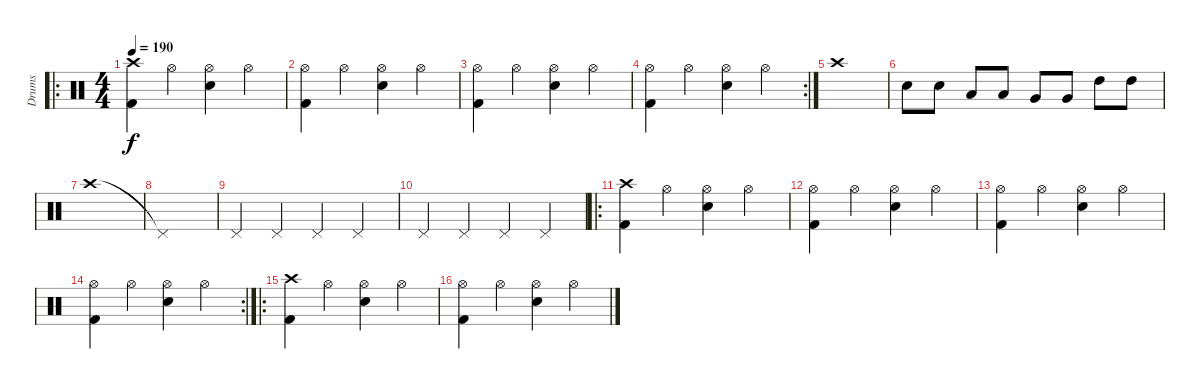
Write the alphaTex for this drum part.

\track ("Drums" "Drums") {instrument percussion}
\staff {score}
\articulation defaults
\ro
\ts (4 4)
\tempo 190
\clef neutral
\ks c
("Crash high (hit)" "Kick (hit) 2").4{dy f} "Hi-Hat (open)".4 ("Hi-Hat (open)" "Electric Snare (hit)").4 "Hi-Hat (open)".4 |
("Hi-Hat (open)" "Kick (hit) 2").4 "Hi-Hat (open)".4 ("Hi-Hat (open)" "Electric Snare (hit)").4 "Hi-Hat (open)".4 |
("Hi-Hat (open)" "Kick (hit) 2").4 "Hi-Hat (open)".4 ("Hi-Hat (open)" "Electric Snare (hit)").4 "Hi-Hat (open)".4 |
\rc 2
("Hi-Hat (open)" "Kick (hit) 2").4 "Hi-Hat (open)".4 ("Hi-Hat (open)" "Electric Snare (hit)").4 "Hi-Hat (open)".4 |
"Crash high (hit)".1 |
"Electric Snare (hit)".8 "Electric Snare (hit)".8 "Low Tom (hit)".8 "Low Tom (hit)".8 "Very Low Tom (hit)".8 "Very Low Tom (hit)".8 "High Tom (hit)".8 "High Tom (hit)".8 |
"Crash high (hit)".1 |
"Pedal Hi-Hat (hit)"{t}.1 |
"Pedal Hi-Hat (hit)".4 "Pedal Hi-Hat (hit)".4 "Pedal Hi-Hat (hit)".4 "Pedal Hi-Hat (hit)".4 |
"Pedal Hi-Hat (hit)".4 "Pedal Hi-Hat (hit)".4 "Pedal Hi-Hat (hit)".4 "Pedal Hi-Hat (hit)".4 |
\ro
("Crash high (hit)" "Kick (hit) 2").4 "Hi-Hat (open)".4 ("Hi-Hat (open)" "Electric Snare (hit)").4 "Hi-Hat (open)".4 |
("Hi-Hat (open)" "Kick (hit) 2").4 "Hi-Hat (open)".4 ("Hi-Hat (open)" "Electric Snare (hit)").4 "Hi-Hat (open)".4 |
("Hi-Hat (open)" "Kick (hit) 2").4 "Hi-Hat (open)".4 ("Hi-Hat (open)" "Electric Snare (hit)").4 "Hi-Hat (open)".4 |
\rc 2
("Hi-Hat (open)" "Kick (hit) 2").4 "Hi-Hat (open)".4 ("Hi-Hat (open)" "Electric Snare (hit)").4 "Hi-Hat (open)".4 |
\ro
("Crash high (hit)" "Kick (hit) 2").4 "Hi-Hat (open)".4 ("Hi-Hat (open)" "Electric Snare (hit)").4 "Hi-Hat (open)".4 |
("Hi-Hat (open)" "Kick (hit) 2").4 "Hi-Hat (open)".4 ("Hi-Hat (open)" "Electric Snare (hit)").4 "Hi-Hat (open)".4
